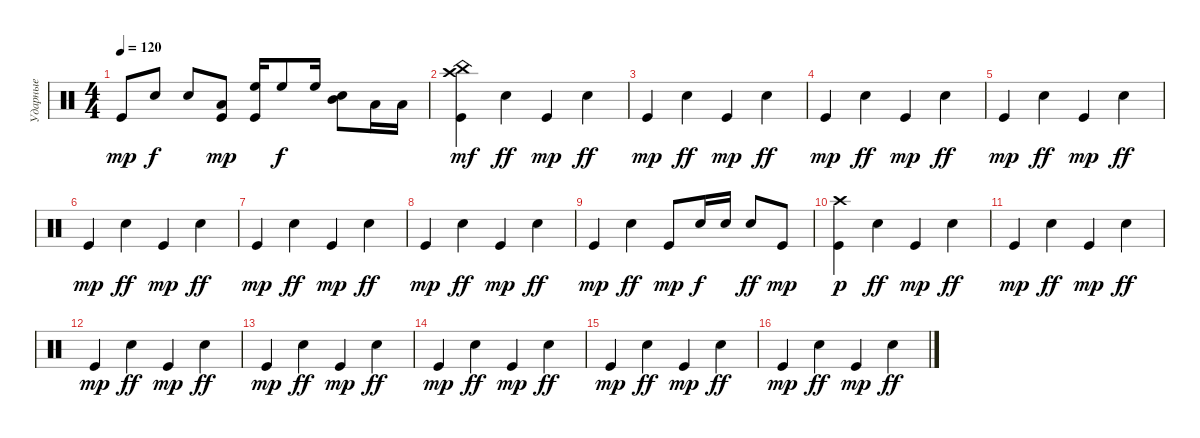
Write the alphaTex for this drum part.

\track ("Ударные" "Ударные") {instrument percussion}
\staff {score}
\articulation defaults
\ts (4 4)
\tempo 120
\clef neutral
\ks c "Kick (hit)".8{dy mp} "Snare (hit) 2".8{dy f} "Snare (hit) 2".8
("Kick (hit)" "Low Tom (hit)").8{dy mp} ("High Floor Tom (hit)" "Kick (hit)").16 "High Floor Tom (hit)".8{dy f} "High Floor Tom (hit)".16 ("Mid Tom (hit)" "Snare (hit) 2").8 "Low Tom (hit)".16 "Low Tom (hit)".16 |
("Kick (hit)" "Crash high (hit)" "China (hit)").4{dy mf} "Snare (hit) 2".4{dy ff} "Kick (hit)".4{dy mp} "Snare (hit) 2".4{dy ff} |
"Kick (hit)".4{dy mp} "Snare (hit) 2".4{dy ff} "Kick (hit)".4{dy mp} "Snare (hit) 2".4{dy ff} |
"Kick (hit)".4{dy mp} "Snare (hit) 2".4{dy ff} "Kick (hit)".4{dy mp} "Snare (hit) 2".4{dy ff} |
"Kick (hit)".4{dy mp} "Snare (hit) 2".4{dy ff} "Kick (hit)".4{dy mp} "Snare (hit) 2".4{dy ff} |
"Kick (hit)".4{dy mp} "Snare (hit) 2".4{dy ff} "Kick (hit)".4{dy mp} "Snare (hit) 2".4{dy ff} |
"Kick (hit)".4{dy mp} "Snare (hit) 2".4{dy ff} "Kick (hit)".4{dy mp} "Snare (hit) 2".4{dy ff} |
"Kick (hit)".4{dy mp} "Snare (hit) 2".4{dy ff} "Kick (hit)".4{dy mp} "Snare (hit) 2".4{dy ff} |
"Kick (hit)".4{dy mp} "Snare (hit) 2".4{dy ff} "Kick (hit)".8{dy mp} "Snare (hit) 2".16{dy f} "Snare (hit) 2".16 "Snare (hit) 2".8{dy ff} "Kick (hit)".8{dy mp} |
("Kick (hit)" "Crash high (hit)").4{dy p} "Snare (hit) 2".4{dy ff} "Kick (hit)".4{dy mp} "Snare (hit) 2".4{dy ff} |
"Kick (hit)".4{dy mp} "Snare (hit) 2".4{dy ff} "Kick (hit)".4{dy mp} "Snare (hit) 2".4{dy ff} |
"Kick (hit)".4{dy mp} "Snare (hit) 2".4{dy ff} "Kick (hit)".4{dy mp} "Snare (hit) 2".4{dy ff} |
"Kick (hit)".4{dy mp} "Snare (hit) 2".4{dy ff} "Kick (hit)".4{dy mp} "Snare (hit) 2".4{dy ff} |
"Kick (hit)".4{dy mp} "Snare (hit) 2".4{dy ff} "Kick (hit)".4{dy mp} "Snare (hit) 2".4{dy ff} |
"Kick (hit)".4{dy mp} "Snare (hit) 2".4{dy ff} "Kick (hit)".4{dy mp} "Snare (hit) 2".4{dy ff} |
"Kick (hit)".4{dy mp} "Snare (hit) 2".4{dy ff} "Kick (hit)".4{dy mp} "Snare (hit) 2".4{dy ff}
